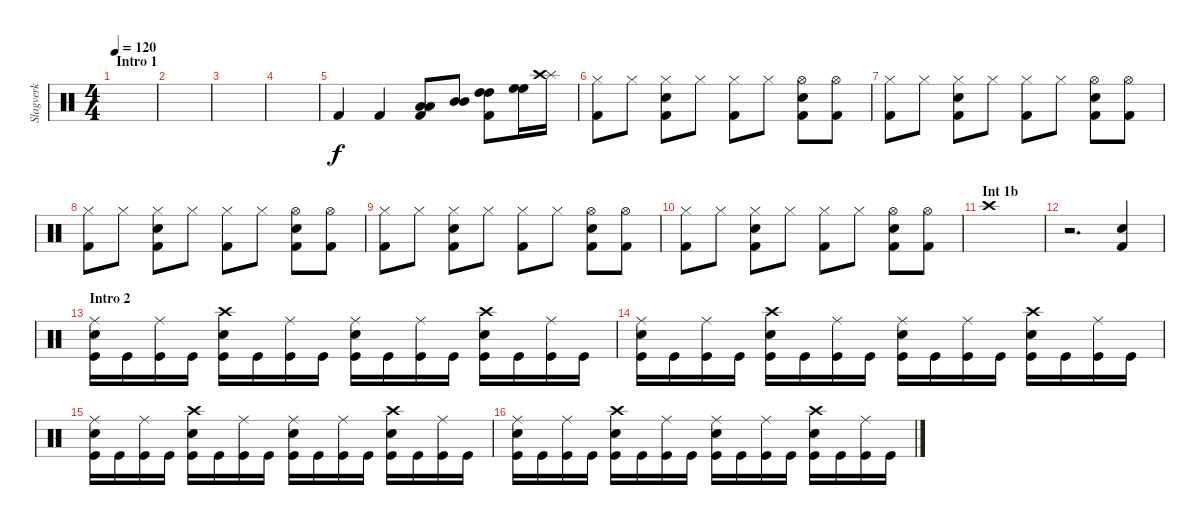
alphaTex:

\track ("Slagverk" "Slagverk") {instrument percussion}
\staff {score}
\articulation defaults
\ts (4 4)
\section ("" "Intro 1")
\tempo 120
\clef neutral
\ks c
|
|
|
|
"Kick (hit) 2".4 "Kick (hit) 2".4 ("Low Tom (hit)" "Low Tom (hit)" "Kick (hit) 2").8 ("Mid Tom (hit)" "Mid Tom (hit)").8 ("High Tom (hit)" "High Tom (hit)" "Kick (hit) 2").8 ("High Floor Tom (hit)" "High Floor Tom (hit)").16 ("Splash (hit)" "Crash high (hit)").16 |
("Kick (hit) 2" "Hi-Hat (closed)").8 "Hi-Hat (closed)".8 ("Kick (hit) 2" "Hi-Hat (closed)" "Snare (hit) 2").8 "Hi-Hat (closed)".8 ("Kick (hit) 2" "Hi-Hat (closed)").8 "Hi-Hat (closed)".8 ("Kick (hit) 2" "Hi-Hat (open)" "Snare (hit) 2").8 ("Kick (hit) 2" "Hi-Hat (open)").8 |
("Kick (hit) 2" "Hi-Hat (closed)").8 "Hi-Hat (closed)".8 ("Kick (hit) 2" "Hi-Hat (closed)" "Snare (hit) 2").8 "Hi-Hat (closed)".8 ("Kick (hit) 2" "Hi-Hat (closed)").8 "Hi-Hat (closed)".8 ("Kick (hit) 2" "Hi-Hat (open)" "Snare (hit) 2").8 ("Kick (hit) 2" "Hi-Hat (open)").8 |
("Kick (hit) 2" "Hi-Hat (closed)").8 "Hi-Hat (closed)".8 ("Kick (hit) 2" "Hi-Hat (closed)" "Snare (hit) 2").8 "Hi-Hat (closed)".8 ("Kick (hit) 2" "Hi-Hat (closed)").8 "Hi-Hat (closed)".8 ("Kick (hit) 2" "Hi-Hat (open)" "Snare (hit) 2").8 ("Kick (hit) 2" "Hi-Hat (open)").8 |
("Kick (hit) 2" "Hi-Hat (closed)").8 "Hi-Hat (closed)".8 ("Kick (hit) 2" "Hi-Hat (closed)" "Snare (hit) 2").8 "Hi-Hat (closed)".8 ("Kick (hit) 2" "Hi-Hat (closed)").8 "Hi-Hat (closed)".8 ("Kick (hit) 2" "Hi-Hat (open)" "Snare (hit) 2").8 ("Kick (hit) 2" "Hi-Hat (open)").8 |
("Kick (hit) 2" "Hi-Hat (closed)").8 "Hi-Hat (closed)".8 ("Kick (hit) 2" "Hi-Hat (closed)" "Snare (hit) 2").8 "Hi-Hat (closed)".8 ("Kick (hit) 2" "Hi-Hat (closed)").8 "Hi-Hat (closed)".8 ("Kick (hit) 2" "Hi-Hat (open)" "Snare (hit) 2").8 ("Kick (hit) 2" "Hi-Hat (open)").8 |
\section ("" "Int 1b")
"Crash high (hit)".1 |
r.2{d} ("Kick (hit) 2" "Snare (hit) 2").4 |
\section ("" "Intro 2")
("Kick (hit)" "Snare (hit) 2" "Ride (middle)").16 "Kick (hit)".16 ("Kick (hit)" "Ride (middle)").16 "Kick (hit)".16 ("Kick (hit)" "Snare (hit) 2" "Crash high (hit)").16 "Kick (hit)".16 ("Kick (hit)" "Ride (middle)").16 "Kick (hit)".16 ("Kick (hit)" "Snare (hit) 2" "Ride (middle)").16 "Kick (hit)".16 ("Kick (hit)" "Ride (middle)").16 "Kick (hit)".16 ("Kick (hit)" "Snare (hit) 2" "Crash high (hit)").16 "Kick (hit)".16 ("Kick (hit)" "Ride (middle)").16 "Kick (hit)".16 |
("Kick (hit)" "Snare (hit) 2" "Ride (middle)").16 "Kick (hit)".16 ("Kick (hit)" "Ride (middle)").16 "Kick (hit)".16 ("Kick (hit)" "Snare (hit) 2" "Crash high (hit)").16 "Kick (hit)".16 ("Kick (hit)" "Ride (middle)").16 "Kick (hit)".16 ("Kick (hit)" "Snare (hit) 2" "Ride (middle)").16 "Kick (hit)".16 ("Kick (hit)" "Ride (middle)").16 "Kick (hit)".16 ("Kick (hit)" "Snare (hit) 2" "Crash high (hit)").16 "Kick (hit)".16 ("Kick (hit)" "Ride (middle)").16 "Kick (hit)".16 |
("Kick (hit)" "Snare (hit) 2" "Ride (middle)").16 "Kick (hit)".16 ("Kick (hit)" "Ride (middle)").16 "Kick (hit)".16 ("Kick (hit)" "Snare (hit) 2" "Crash high (hit)").16 "Kick (hit)".16 ("Kick (hit)" "Ride (middle)").16 "Kick (hit)".16 ("Kick (hit)" "Snare (hit) 2" "Ride (middle)").16 "Kick (hit)".16 ("Kick (hit)" "Ride (middle)").16 "Kick (hit)".16 ("Kick (hit)" "Snare (hit) 2" "Crash high (hit)").16 "Kick (hit)".16 ("Kick (hit)" "Ride (middle)").16 "Kick (hit)".16 |
("Kick (hit)" "Snare (hit) 2" "Ride (middle)").16 "Kick (hit)".16 ("Kick (hit)" "Ride (middle)").16 "Kick (hit)".16 ("Kick (hit)" "Snare (hit) 2" "Crash high (hit)").16 "Kick (hit)".16 ("Kick (hit)" "Ride (middle)").16 "Kick (hit)".16 ("Kick (hit)" "Snare (hit) 2" "Ride (middle)").16 "Kick (hit)".16 ("Kick (hit)" "Ride (middle)").16 "Kick (hit)".16 ("Kick (hit)" "Snare (hit) 2" "Crash high (hit)").16 "Kick (hit)".16 ("Kick (hit)" "Ride (middle)").16 "Kick (hit)".16
